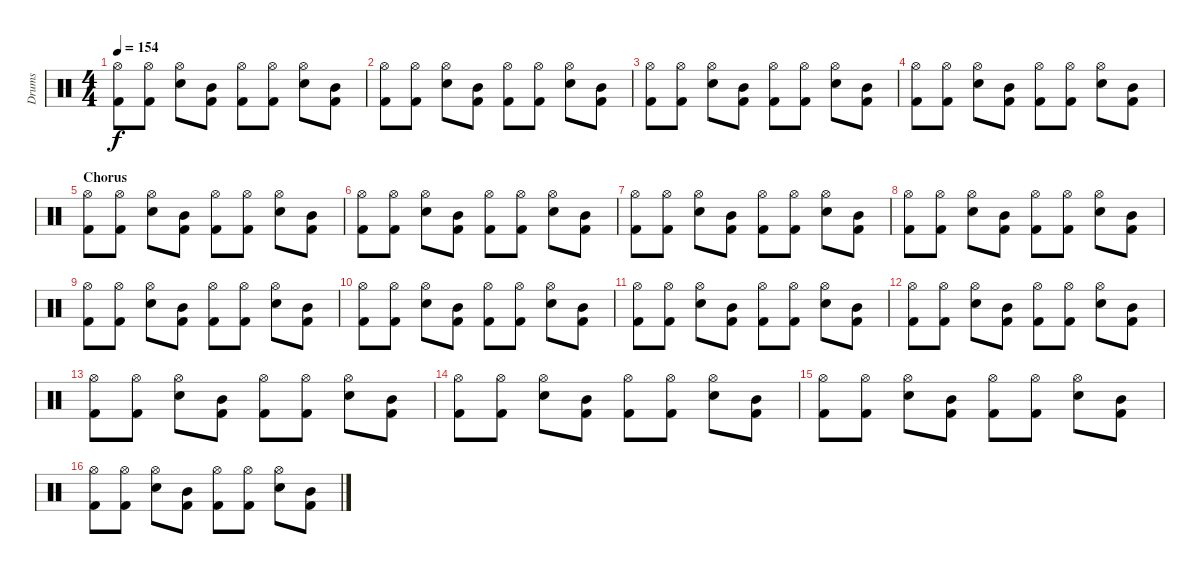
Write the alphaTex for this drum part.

\track ("Drums" "Drums") {instrument percussion}
\staff {score}
\articulation defaults
\ts (4 4)
\tempo 154
\clef neutral
\ks c
("Hi-Hat (open)" "Kick (hit) 2").8{dy f} ("Hi-Hat (open)" "Kick (hit) 2").8 ("Hi-Hat (open)" "Electric Snare (hit)").8 ("Mid Tom (hit)" "Kick (hit) 2").8 ("Hi-Hat (open)" "Kick (hit) 2").8 ("Hi-Hat (open)" "Kick (hit) 2").8 ("Hi-Hat (open)" "Electric Snare (hit)").8 ("Mid Tom (hit)" "Kick (hit) 2").8 |
("Hi-Hat (open)" "Kick (hit) 2").8 ("Hi-Hat (open)" "Kick (hit) 2").8 ("Hi-Hat (open)" "Electric Snare (hit)").8 ("Mid Tom (hit)" "Kick (hit) 2").8 ("Hi-Hat (open)" "Kick (hit) 2").8 ("Hi-Hat (open)" "Kick (hit) 2").8 ("Hi-Hat (open)" "Electric Snare (hit)").8 ("Mid Tom (hit)" "Kick (hit) 2").8 |
("Hi-Hat (open)" "Kick (hit) 2").8 ("Hi-Hat (open)" "Kick (hit) 2").8 ("Hi-Hat (open)" "Electric Snare (hit)").8 ("Mid Tom (hit)" "Kick (hit) 2").8 ("Hi-Hat (open)" "Kick (hit) 2").8 ("Hi-Hat (open)" "Kick (hit) 2").8 ("Hi-Hat (open)" "Electric Snare (hit)").8 ("Mid Tom (hit)" "Kick (hit) 2").8 |
("Hi-Hat (open)" "Kick (hit) 2").8 ("Hi-Hat (open)" "Kick (hit) 2").8 ("Hi-Hat (open)" "Electric Snare (hit)").8 ("Mid Tom (hit)" "Kick (hit) 2").8 ("Hi-Hat (open)" "Kick (hit) 2").8 ("Hi-Hat (open)" "Kick (hit) 2").8 ("Hi-Hat (open)" "Electric Snare (hit)").8 ("Mid Tom (hit)" "Kick (hit) 2").8 |
\section ("" "Chorus")
("Hi-Hat (open)" "Kick (hit) 2").8 ("Hi-Hat (open)" "Kick (hit) 2").8 ("Hi-Hat (open)" "Electric Snare (hit)").8 ("Mid Tom (hit)" "Kick (hit) 2").8 ("Hi-Hat (open)" "Kick (hit) 2").8 ("Hi-Hat (open)" "Kick (hit) 2").8 ("Hi-Hat (open)" "Electric Snare (hit)").8 ("Mid Tom (hit)" "Kick (hit) 2").8 |
("Hi-Hat (open)" "Kick (hit) 2").8 ("Hi-Hat (open)" "Kick (hit) 2").8 ("Hi-Hat (open)" "Electric Snare (hit)").8 ("Mid Tom (hit)" "Kick (hit) 2").8 ("Hi-Hat (open)" "Kick (hit) 2").8 ("Hi-Hat (open)" "Kick (hit) 2").8 ("Hi-Hat (open)" "Electric Snare (hit)").8 ("Mid Tom (hit)" "Kick (hit) 2").8 |
("Hi-Hat (open)" "Kick (hit) 2").8 ("Hi-Hat (open)" "Kick (hit) 2").8 ("Hi-Hat (open)" "Electric Snare (hit)").8 ("Mid Tom (hit)" "Kick (hit) 2").8 ("Hi-Hat (open)" "Kick (hit) 2").8 ("Hi-Hat (open)" "Kick (hit) 2").8 ("Hi-Hat (open)" "Electric Snare (hit)").8 ("Mid Tom (hit)" "Kick (hit) 2").8 |
("Hi-Hat (open)" "Kick (hit) 2").8 ("Hi-Hat (open)" "Kick (hit) 2").8 ("Hi-Hat (open)" "Electric Snare (hit)").8 ("Mid Tom (hit)" "Kick (hit) 2").8 ("Hi-Hat (open)" "Kick (hit) 2").8 ("Hi-Hat (open)" "Kick (hit) 2").8 ("Hi-Hat (open)" "Electric Snare (hit)").8 ("Mid Tom (hit)" "Kick (hit) 2").8 |
("Hi-Hat (open)" "Kick (hit) 2").8 ("Hi-Hat (open)" "Kick (hit) 2").8 ("Hi-Hat (open)" "Electric Snare (hit)").8 ("Mid Tom (hit)" "Kick (hit) 2").8 ("Hi-Hat (open)" "Kick (hit) 2").8 ("Hi-Hat (open)" "Kick (hit) 2").8 ("Hi-Hat (open)" "Electric Snare (hit)").8 ("Mid Tom (hit)" "Kick (hit) 2").8 |
("Hi-Hat (open)" "Kick (hit) 2").8 ("Hi-Hat (open)" "Kick (hit) 2").8 ("Hi-Hat (open)" "Electric Snare (hit)").8 ("Mid Tom (hit)" "Kick (hit) 2").8 ("Hi-Hat (open)" "Kick (hit) 2").8 ("Hi-Hat (open)" "Kick (hit) 2").8 ("Hi-Hat (open)" "Electric Snare (hit)").8 ("Mid Tom (hit)" "Kick (hit) 2").8 |
("Hi-Hat (open)" "Kick (hit) 2").8 ("Hi-Hat (open)" "Kick (hit) 2").8 ("Hi-Hat (open)" "Electric Snare (hit)").8 ("Mid Tom (hit)" "Kick (hit) 2").8 ("Hi-Hat (open)" "Kick (hit) 2").8 ("Hi-Hat (open)" "Kick (hit) 2").8 ("Hi-Hat (open)" "Electric Snare (hit)").8 ("Mid Tom (hit)" "Kick (hit) 2").8 |
("Hi-Hat (open)" "Kick (hit) 2").8 ("Hi-Hat (open)" "Kick (hit) 2").8 ("Hi-Hat (open)" "Electric Snare (hit)").8 ("Mid Tom (hit)" "Kick (hit) 2").8 ("Hi-Hat (open)" "Kick (hit) 2").8 ("Hi-Hat (open)" "Kick (hit) 2").8 ("Hi-Hat (open)" "Electric Snare (hit)").8 ("Mid Tom (hit)" "Kick (hit) 2").8 |
("Hi-Hat (open)" "Kick (hit) 2").8 ("Hi-Hat (open)" "Kick (hit) 2").8 ("Hi-Hat (open)" "Electric Snare (hit)").8 ("Mid Tom (hit)" "Kick (hit) 2").8 ("Hi-Hat (open)" "Kick (hit) 2").8 ("Hi-Hat (open)" "Kick (hit) 2").8 ("Hi-Hat (open)" "Electric Snare (hit)").8 ("Mid Tom (hit)" "Kick (hit) 2").8 |
("Hi-Hat (open)" "Kick (hit) 2").8 ("Hi-Hat (open)" "Kick (hit) 2").8 ("Hi-Hat (open)" "Electric Snare (hit)").8 ("Mid Tom (hit)" "Kick (hit) 2").8 ("Hi-Hat (open)" "Kick (hit) 2").8 ("Hi-Hat (open)" "Kick (hit) 2").8 ("Hi-Hat (open)" "Electric Snare (hit)").8 ("Mid Tom (hit)" "Kick (hit) 2").8 |
("Hi-Hat (open)" "Kick (hit) 2").8 ("Hi-Hat (open)" "Kick (hit) 2").8 ("Hi-Hat (open)" "Electric Snare (hit)").8 ("Mid Tom (hit)" "Kick (hit) 2").8 ("Hi-Hat (open)" "Kick (hit) 2").8 ("Hi-Hat (open)" "Kick (hit) 2").8 ("Hi-Hat (open)" "Electric Snare (hit)").8 ("Mid Tom (hit)" "Kick (hit) 2").8 |
("Hi-Hat (open)" "Kick (hit) 2").8 ("Hi-Hat (open)" "Kick (hit) 2").8 ("Hi-Hat (open)" "Electric Snare (hit)").8 ("Mid Tom (hit)" "Kick (hit) 2").8 ("Hi-Hat (open)" "Kick (hit) 2").8 ("Hi-Hat (open)" "Kick (hit) 2").8 ("Hi-Hat (open)" "Electric Snare (hit)").8 ("Mid Tom (hit)" "Kick (hit) 2").8
